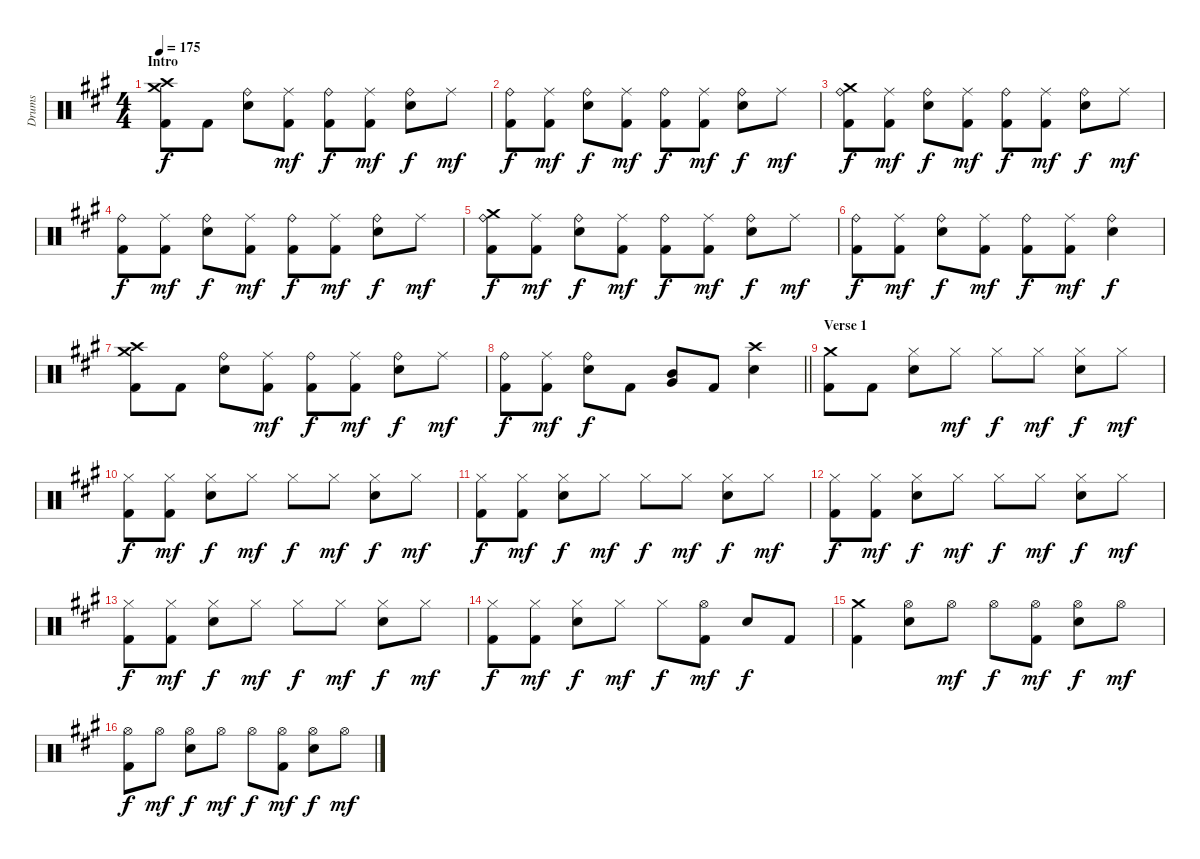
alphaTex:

\track ("Drums" "Drums") {instrument percussion}
\staff {score}
\articulation defaults
\ts (4 4)
\section ("" "Intro")
\tempo 175
\clef neutral
\ks f#minor
("Crash high (hit)" "Crash medium (hit)" "Kick (hit) 2").8{dy f} "Kick (hit) 2".8 ("Ride (bell)" "Electric Snare (hit)").8 ("Ride (middle)" "Kick (hit) 2").8{dy mf} ("Ride (bell)" "Kick (hit) 2").8{dy f} ("Ride (middle)" "Kick (hit) 2").8{dy mf} ("Ride (bell)" "Electric Snare (hit)").8{dy f} "Ride (middle)".8{dy mf} |
("Ride (bell)" "Kick (hit) 2").8{dy f} ("Ride (middle)" "Kick (hit) 2").8{dy mf} ("Ride (bell)" "Electric Snare (hit)").8{dy f} ("Ride (middle)" "Kick (hit) 2").8{dy mf} ("Ride (bell)" "Kick (hit) 2").8{dy f} ("Ride (middle)" "Kick (hit) 2").8{dy mf} ("Ride (bell)" "Electric Snare (hit)").8{dy f} "Ride (middle)".8{dy mf} |
("Crash medium (hit)" "Ride (bell)" "Kick (hit) 2").8{dy f} ("Ride (middle)" "Kick (hit) 2").8{dy mf} ("Ride (bell)" "Electric Snare (hit)").8{dy f} ("Ride (middle)" "Kick (hit) 2").8{dy mf} ("Ride (bell)" "Kick (hit) 2").8{dy f} ("Ride (middle)" "Kick (hit) 2").8{dy mf} ("Ride (bell)" "Electric Snare (hit)").8{dy f} "Ride (middle)".8{dy mf} |
("Ride (bell)" "Kick (hit) 2").8{dy f} ("Ride (middle)" "Kick (hit) 2").8{dy mf} ("Ride (bell)" "Electric Snare (hit)").8{dy f} ("Ride (middle)" "Kick (hit) 2").8{dy mf} ("Ride (bell)" "Kick (hit) 2").8{dy f} ("Ride (middle)" "Kick (hit) 2").8{dy mf} ("Ride (bell)" "Electric Snare (hit)").8{dy f} "Ride (middle)".8{dy mf} |
("Crash medium (hit)" "Ride (bell)" "Kick (hit) 2").8{dy f} ("Ride (middle)" "Kick (hit) 2").8{dy mf} ("Ride (bell)" "Electric Snare (hit)").8{dy f} ("Ride (middle)" "Kick (hit) 2").8{dy mf} ("Ride (bell)" "Kick (hit) 2").8{dy f} ("Ride (middle)" "Kick (hit) 2").8{dy mf} ("Ride (bell)" "Electric Snare (hit)").8{dy f} "Ride (middle)".8{dy mf} |
("Ride (bell)" "Kick (hit) 2").8{dy f} ("Ride (middle)" "Kick (hit) 2").8{dy mf} ("Ride (bell)" "Electric Snare (hit)").8{dy f} ("Ride (middle)" "Kick (hit) 2").8{dy mf} ("Ride (bell)" "Kick (hit) 2").8{dy f} ("Ride (middle)" "Kick (hit) 2").8{dy mf} ("Ride (bell)" "Electric Snare (hit)").4{dy f} |
("Crash high (hit)" "Crash medium (hit)" "Kick (hit) 2").8 "Kick (hit) 2".8 ("Ride (bell)" "Electric Snare (hit)").8 ("Ride (middle)" "Kick (hit) 2").8{dy mf} ("Ride (bell)" "Kick (hit) 2").8{dy f} ("Ride (middle)" "Kick (hit) 2").8{dy mf} ("Ride (bell)" "Electric Snare (hit)").8{dy f} "Ride (middle)".8{dy mf} |
\barLineRight lightlight
("Ride (bell)" "Kick (hit) 2").8{dy f} ("Ride (middle)" "Kick (hit) 2").8{dy mf} ("Ride (bell)" "Electric Snare (hit)").8{dy f} "Kick (hit) 2".8 ("Mid Tom (hit)" "Very Low Tom (hit)").8{bu 240} "Kick (hit) 2".8 ("Crash high (hit)" "Electric Snare (hit)").4 |
\section ("" "Verse 1")
("Crash medium (hit)" "Kick (hit) 2").8 "Kick (hit) 2".8 ("Hi-Hat (closed)" "Electric Snare (hit)").8 "Hi-Hat (closed)".8{dy mf} "Hi-Hat (closed)".8{dy f} "Hi-Hat (closed)".8{dy mf} ("Hi-Hat (closed)" "Electric Snare (hit)").8{dy f} "Hi-Hat (closed)".8{dy mf} |
("Hi-Hat (closed)" "Kick (hit) 2").8{dy f} ("Hi-Hat (closed)" "Kick (hit) 2").8{dy mf} ("Hi-Hat (closed)" "Electric Snare (hit)").8{dy f} "Hi-Hat (closed)".8{dy mf} "Hi-Hat (closed)".8{dy f} "Hi-Hat (closed)".8{dy mf} ("Hi-Hat (closed)" "Electric Snare (hit)").8{dy f} "Hi-Hat (closed)".8{dy mf} |
("Hi-Hat (closed)" "Kick (hit) 2").8{dy f} ("Hi-Hat (closed)" "Kick (hit) 2").8{dy mf} ("Hi-Hat (closed)" "Electric Snare (hit)").8{dy f} "Hi-Hat (closed)".8{dy mf} "Hi-Hat (closed)".8{dy f} "Hi-Hat (closed)".8{dy mf} ("Hi-Hat (closed)" "Electric Snare (hit)").8{dy f} "Hi-Hat (closed)".8{dy mf} |
("Hi-Hat (closed)" "Kick (hit) 2").8{dy f} ("Hi-Hat (closed)" "Kick (hit) 2").8{dy mf} ("Hi-Hat (closed)" "Electric Snare (hit)").8{dy f} "Hi-Hat (closed)".8{dy mf} "Hi-Hat (closed)".8{dy f} "Hi-Hat (closed)".8{dy mf} ("Hi-Hat (closed)" "Electric Snare (hit)").8{dy f} "Hi-Hat (closed)".8{dy mf} |
("Hi-Hat (closed)" "Kick (hit) 2").8{dy f} ("Hi-Hat (closed)" "Kick (hit) 2").8{dy mf} ("Hi-Hat (closed)" "Electric Snare (hit)").8{dy f} "Hi-Hat (closed)".8{dy mf} "Hi-Hat (closed)".8{dy f} "Hi-Hat (closed)".8{dy mf} ("Hi-Hat (closed)" "Electric Snare (hit)").8{dy f} "Hi-Hat (closed)".8{dy mf} |
("Hi-Hat (closed)" "Kick (hit) 2").8{dy f} ("Hi-Hat (closed)" "Kick (hit) 2").8{dy mf} ("Hi-Hat (closed)" "Electric Snare (hit)").8{dy f} "Hi-Hat (closed)".8{dy mf} "Hi-Hat (closed)".8{dy f} ("Hi-Hat (open)" "Kick (hit) 2").8{dy mf} "Electric Snare (hit)".8{dy f} "Kick (hit) 2".8 |
("Crash medium (hit)" "Kick (hit) 2").4 ("Hi-Hat (open)" "Electric Snare (hit)").8 "Hi-Hat (open)".8{dy mf} "Hi-Hat (open)".8{dy f} ("Hi-Hat (open)" "Kick (hit) 2").8{dy mf} ("Hi-Hat (open)" "Electric Snare (hit)").8{dy f} "Hi-Hat (open)".8{dy mf} |
("Hi-Hat (open)" "Kick (hit) 2").8{dy f} "Hi-Hat (open)".8{dy mf} ("Hi-Hat (open)" "Electric Snare (hit)").8{dy f} "Hi-Hat (open)".8{dy mf} "Hi-Hat (open)".8{dy f} ("Hi-Hat (open)" "Kick (hit) 2").8{dy mf} ("Hi-Hat (open)" "Electric Snare (hit)").8{dy f} "Hi-Hat (open)".8{dy mf}
